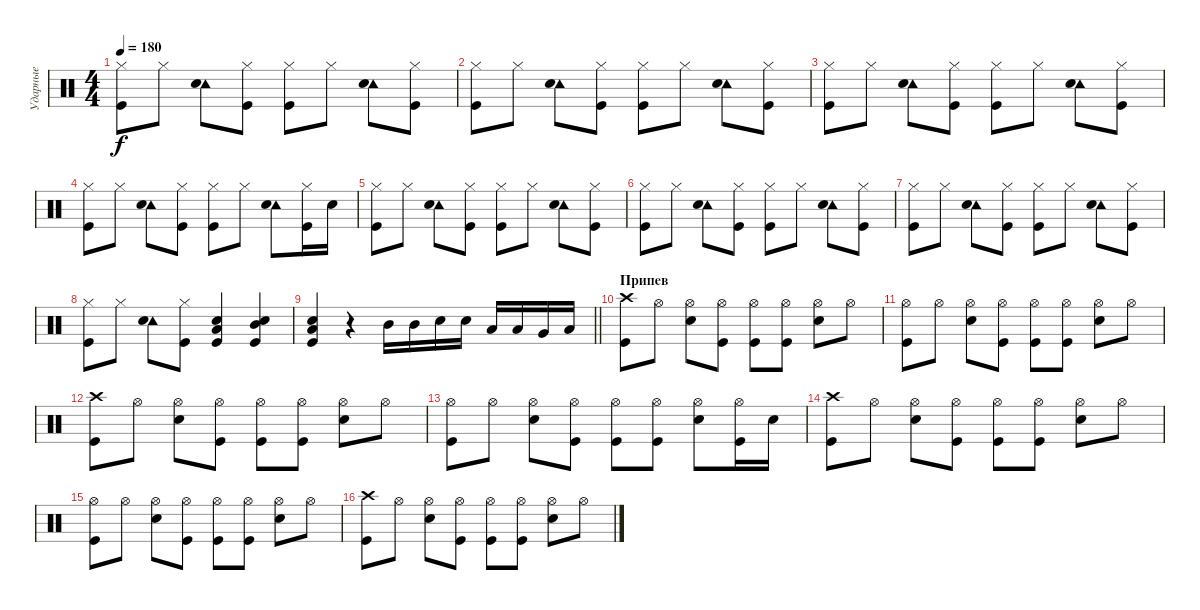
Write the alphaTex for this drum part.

\track ("Ударные" "Ударные") {instrument percussion}
\staff {score}
\articulation defaults
\ts (4 4)
\tempo 180
\clef neutral
\ks c
("Hi-Hat (closed)" "Kick (hit)").8{dy f} "Hi-Hat (closed)".8 ("Tambourine (hit)" "Snare (hit) 2").8 ("Hi-Hat (closed)" "Kick (hit)").8 ("Hi-Hat (closed)" "Kick (hit)").8 "Hi-Hat (closed)".8 ("Tambourine (hit)" "Snare (hit) 2").8 ("Hi-Hat (closed)" "Kick (hit)").8 |
("Hi-Hat (closed)" "Kick (hit)").8 "Hi-Hat (closed)".8 ("Tambourine (hit)" "Snare (hit) 2").8 ("Hi-Hat (closed)" "Kick (hit)").8 ("Hi-Hat (closed)" "Kick (hit)").8 "Hi-Hat (closed)".8 ("Tambourine (hit)" "Snare (hit) 2").8 ("Hi-Hat (closed)" "Kick (hit)").8 |
("Hi-Hat (closed)" "Kick (hit)").8 "Hi-Hat (closed)".8 ("Tambourine (hit)" "Snare (hit) 2").8 ("Hi-Hat (closed)" "Kick (hit)").8 ("Hi-Hat (closed)" "Kick (hit)").8 "Hi-Hat (closed)".8 ("Tambourine (hit)" "Snare (hit) 2").8 ("Hi-Hat (closed)" "Kick (hit)").8 |
("Hi-Hat (closed)" "Kick (hit)").8 "Hi-Hat (closed)".8 ("Tambourine (hit)" "Snare (hit) 2").8 ("Hi-Hat (closed)" "Kick (hit)").8 ("Hi-Hat (closed)" "Kick (hit)").8 "Hi-Hat (closed)".8 ("Tambourine (hit)" "Snare (hit) 2").8 ("Hi-Hat (closed)" "Kick (hit)").16 "Snare (hit) 2".16 |
("Hi-Hat (closed)" "Kick (hit)").8 "Hi-Hat (closed)".8 ("Tambourine (hit)" "Snare (hit) 2").8 ("Hi-Hat (closed)" "Kick (hit)").8 ("Hi-Hat (closed)" "Kick (hit)").8 "Hi-Hat (closed)".8 ("Tambourine (hit)" "Snare (hit) 2").8 ("Hi-Hat (closed)" "Kick (hit)").8 |
("Hi-Hat (closed)" "Kick (hit)").8 "Hi-Hat (closed)".8 ("Tambourine (hit)" "Snare (hit) 2").8 ("Hi-Hat (closed)" "Kick (hit)").8 ("Hi-Hat (closed)" "Kick (hit)").8 "Hi-Hat (closed)".8 ("Tambourine (hit)" "Snare (hit) 2").8 ("Hi-Hat (closed)" "Kick (hit)").8 |
("Hi-Hat (closed)" "Kick (hit)").8 "Hi-Hat (closed)".8 ("Tambourine (hit)" "Snare (hit) 2").8 ("Hi-Hat (closed)" "Kick (hit)").8 ("Hi-Hat (closed)" "Kick (hit)").8 "Hi-Hat (closed)".8 ("Tambourine (hit)" "Snare (hit) 2").8 ("Hi-Hat (closed)" "Kick (hit)").8 |
("Hi-Hat (closed)" "Kick (hit)").8 "Hi-Hat (closed)".8 ("Tambourine (hit)" "Snare (hit) 2").8 ("Hi-Hat (closed)" "Kick (hit)").8 ("Kick (hit)" "Low Tom (hit)" "Snare (hit) 2").4 ("Kick (hit)" "Mid Tom (hit)" "Snare (hit) 2").4 |
\barLineRight lightlight
("Kick (hit)" "Low Tom (hit)" "Snare (hit) 2").4 r.4 "Mid Tom (hit)".16 "Mid Tom (hit)".16 "Snare (hit) 2".16 "Snare (hit) 2".16 "Low Tom (hit)".16 "Low Tom (hit)".16 "Very Low Tom (hit)".16 "Low Floor Tom (hit)".16 |
\section ("" "Припев")
("Crash high (hit)" "Kick (hit)").8 "Hi-Hat (open)".8 ("Hi-Hat (open)" "Snare (hit) 2").8 ("Hi-Hat (open)" "Kick (hit)").8 ("Hi-Hat (open)" "Kick (hit)").8 ("Hi-Hat (open)" "Kick (hit)").8 ("Hi-Hat (open)" "Snare (hit) 2").8 "Hi-Hat (open)".8 |
("Hi-Hat (open)" "Kick (hit)").8 "Hi-Hat (open)".8 ("Hi-Hat (open)" "Snare (hit) 2").8 ("Hi-Hat (open)" "Kick (hit)").8 ("Hi-Hat (open)" "Kick (hit)").8 ("Hi-Hat (open)" "Kick (hit)").8 ("Hi-Hat (open)" "Snare (hit) 2").8 "Hi-Hat (open)".8 |
("Crash high (hit)" "Kick (hit)").8 "Hi-Hat (open)".8 ("Hi-Hat (open)" "Snare (hit) 2").8 ("Hi-Hat (open)" "Kick (hit)").8 ("Hi-Hat (open)" "Kick (hit)").8 ("Hi-Hat (open)" "Kick (hit)").8 ("Hi-Hat (open)" "Snare (hit) 2").8 "Hi-Hat (open)".8 |
("Hi-Hat (open)" "Kick (hit)").8 "Hi-Hat (open)".8 ("Hi-Hat (open)" "Snare (hit) 2").8 ("Hi-Hat (open)" "Kick (hit)").8 ("Hi-Hat (open)" "Kick (hit)").8 ("Hi-Hat (open)" "Kick (hit)").8 ("Hi-Hat (open)" "Snare (hit) 2").8 ("Hi-Hat (open)" "Kick (hit)").16 "Snare (hit) 2".16 |
("Crash high (hit)" "Kick (hit)").8 "Hi-Hat (open)".8 ("Hi-Hat (open)" "Snare (hit) 2").8 ("Hi-Hat (open)" "Kick (hit)").8 ("Hi-Hat (open)" "Kick (hit)").8 ("Hi-Hat (open)" "Kick (hit)").8 ("Hi-Hat (open)" "Snare (hit) 2").8 "Hi-Hat (open)".8 |
("Hi-Hat (open)" "Kick (hit)").8 "Hi-Hat (open)".8 ("Hi-Hat (open)" "Snare (hit) 2").8 ("Hi-Hat (open)" "Kick (hit)").8 ("Hi-Hat (open)" "Kick (hit)").8 ("Hi-Hat (open)" "Kick (hit)").8 ("Hi-Hat (open)" "Snare (hit) 2").8 "Hi-Hat (open)".8 |
("Crash high (hit)" "Kick (hit)").8 "Hi-Hat (open)".8 ("Hi-Hat (open)" "Snare (hit) 2").8 ("Hi-Hat (open)" "Kick (hit)").8 ("Hi-Hat (open)" "Kick (hit)").8 ("Hi-Hat (open)" "Kick (hit)").8 ("Hi-Hat (open)" "Snare (hit) 2").8 "Hi-Hat (open)".8
